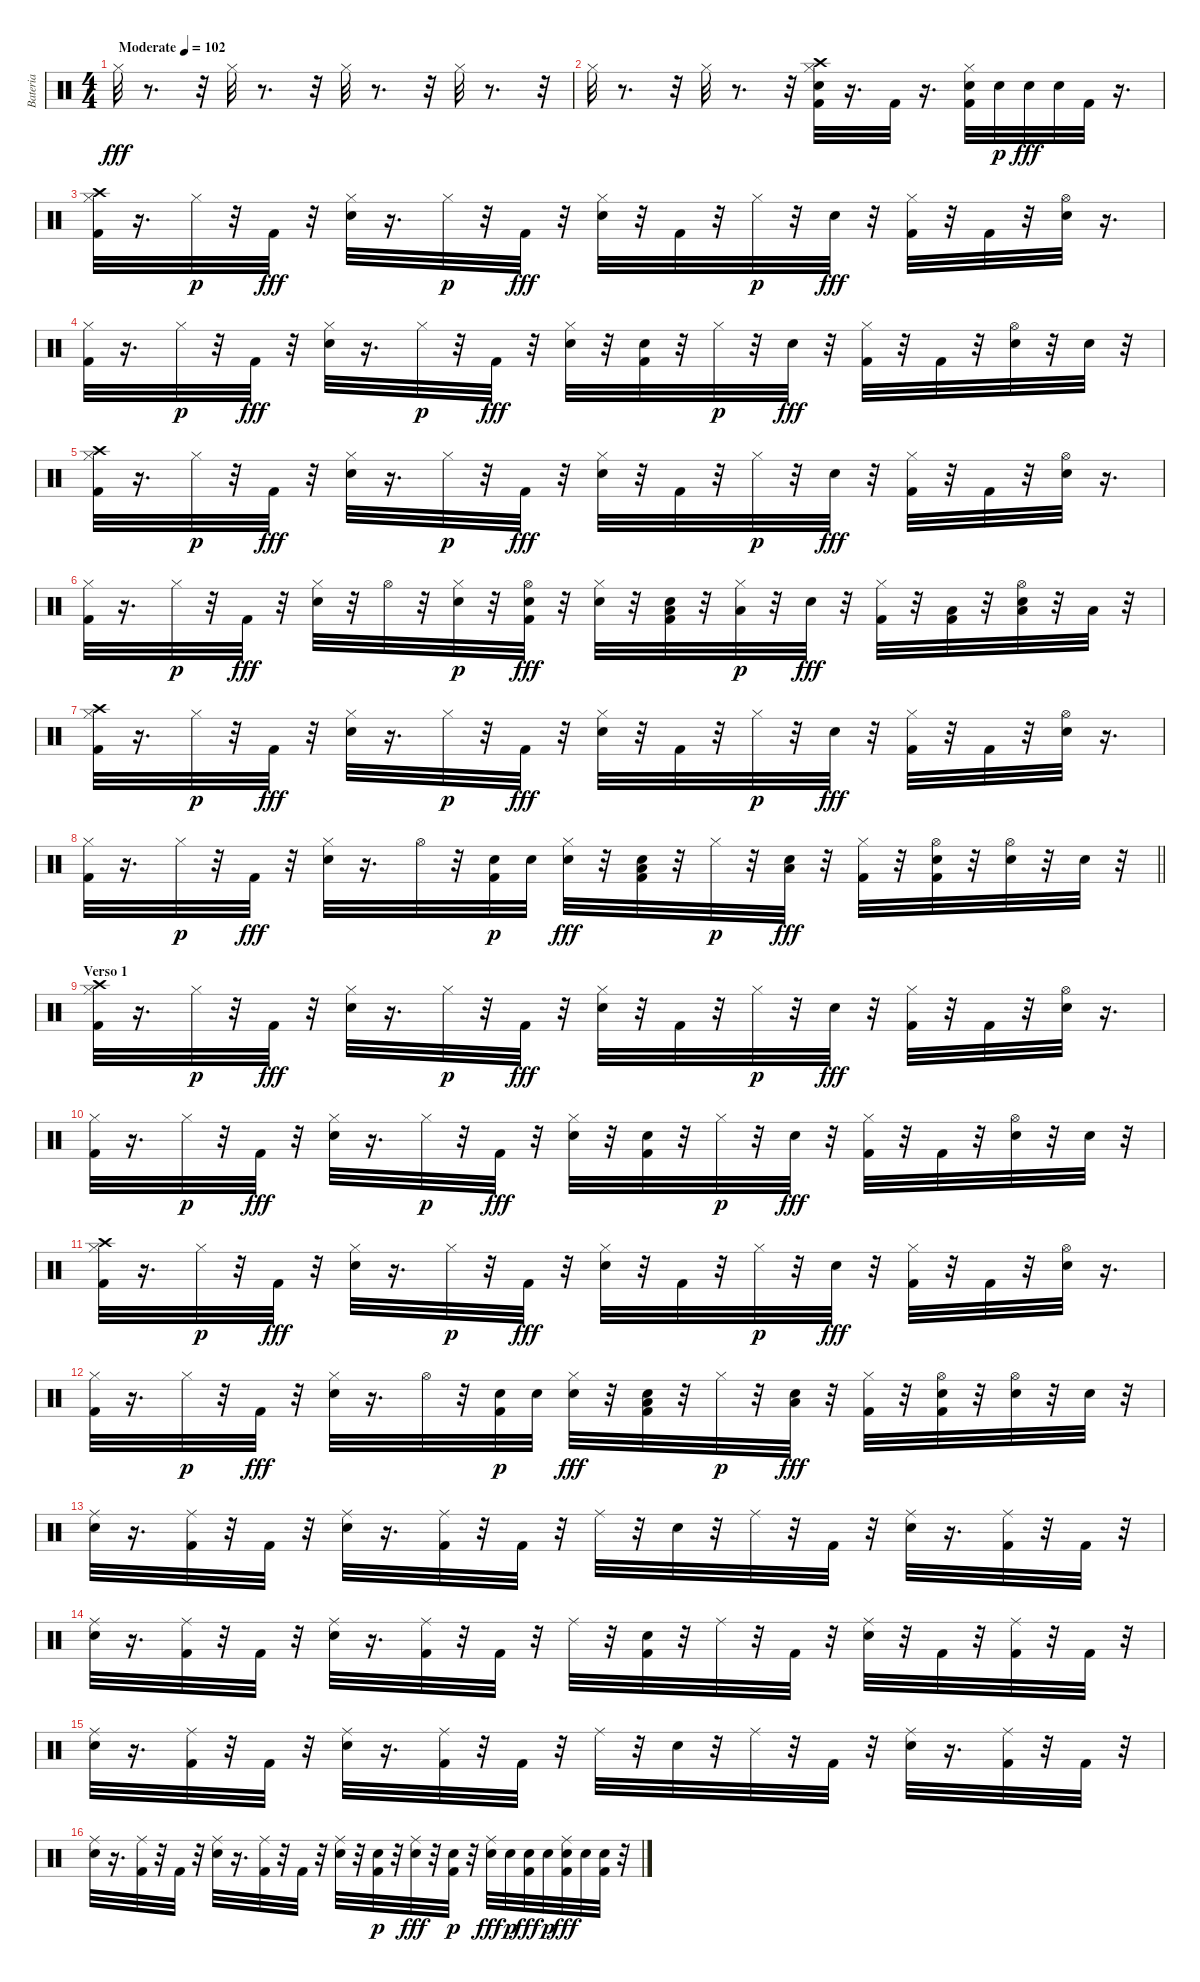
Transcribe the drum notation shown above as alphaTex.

\track ("Bateria" "Bateria") {instrument percussion}
\staff {score}
\articulation defaults
\ts (4 4)
\tempo (102 "Moderate")
\clef neutral
\ks c "Hi-Hat (closed)".32{dy fff}
r.8{d} r.32 "Hi-Hat (closed)".32 r.8{d} r.32 "Hi-Hat (closed)".32 r.8{d} r.32 "Hi-Hat (closed)".32 r.8{d} r.32 |
"Hi-Hat (closed)".32 r.8{d} r.32 "Hi-Hat (closed)".32 r.8{d} r.32 ("Kick (hit) 2" "Snare (hit) 2" "Hi-Hat (closed)" "Crash high (hit)").32 r.16{d} "Kick (hit) 2".32 r.16{d} ("Kick (hit) 2" "Snare (hit) 2" "Hi-Hat (closed)").32 "Snare (hit) 2".32{dy p} "Snare (hit) 2".32{dy fff} "Snare (hit) 2".32 "Kick (hit) 2".32 r.16{d} |
("Kick (hit) 2" "Hi-Hat (closed)" "Crash high (hit)").32 r.16{d} "Hi-Hat (closed)".32{dy p} r.32 "Kick (hit) 2".32{dy fff} r.32 ("Snare (hit) 2" "Hi-Hat (closed)").32 r.16{d} "Hi-Hat (closed)".32{dy p} r.32 "Kick (hit) 2".32{dy fff} r.32 ("Snare (hit) 2" "Hi-Hat (closed)").32 r.32 "Kick (hit) 2".32 r.32 "Hi-Hat (closed)".32{dy p} r.32 "Snare (hit) 2".32{dy fff} r.32 ("Kick (hit) 2" "Hi-Hat (closed)").32 r.32 "Kick (hit) 2".32 r.32 ("Snare (hit) 2" "Hi-Hat (open)").32 r.16{d} |
("Kick (hit) 2" "Hi-Hat (closed)").32 r.16{d} "Hi-Hat (closed)".32{dy p} r.32 "Kick (hit) 2".32{dy fff} r.32 ("Snare (hit) 2" "Hi-Hat (closed)").32 r.16{d} "Hi-Hat (closed)".32{dy p} r.32 "Kick (hit) 2".32{dy fff} r.32 ("Snare (hit) 2" "Hi-Hat (closed)").32 r.32 ("Kick (hit) 2" "Snare (hit) 2").32 r.32 "Hi-Hat (closed)".32{dy p} r.32 "Snare (hit) 2".32{dy fff} r.32 ("Kick (hit) 2" "Hi-Hat (closed)").32 r.32 "Kick (hit) 2".32 r.32 ("Snare (hit) 2" "Hi-Hat (open)").32 r.32 "Snare (hit) 2".32 r.32 |
("Kick (hit) 2" "Hi-Hat (closed)" "Crash high (hit)").32 r.16{d} "Hi-Hat (closed)".32{dy p} r.32 "Kick (hit) 2".32{dy fff} r.32 ("Snare (hit) 2" "Hi-Hat (closed)").32 r.16{d} "Hi-Hat (closed)".32{dy p} r.32 "Kick (hit) 2".32{dy fff} r.32 ("Snare (hit) 2" "Hi-Hat (closed)").32 r.32 "Kick (hit) 2".32 r.32 "Hi-Hat (closed)".32{dy p} r.32 "Snare (hit) 2".32{dy fff} r.32 ("Kick (hit) 2" "Hi-Hat (closed)").32 r.32 "Kick (hit) 2".32 r.32 ("Snare (hit) 2" "Hi-Hat (open)").32 r.16{d} |
("Kick (hit) 2" "Hi-Hat (closed)").32 r.16{d} "Hi-Hat (closed)".32{dy p} r.32 "Kick (hit) 2".32{dy fff} r.32 ("Snare (hit) 2" "Hi-Hat (closed)").32 r.32 "Hi-Hat (open)".32 r.32 ("Snare (hit) 2" "Hi-Hat (closed)").32{dy p} r.32 ("Kick (hit) 2" "Snare (hit) 2" "Hi-Hat (open)").32{dy fff} r.32 ("Snare (hit) 2" "Hi-Hat (closed)").32 r.32 ("Kick (hit) 2" "Snare (hit) 2" "Low Tom (hit)").32 r.32 ("Low Floor Tom (hit)" "Hi-Hat (closed)").32{dy p} r.32 "Snare (hit) 2".32{dy fff} r.32 ("Kick (hit) 2" "Hi-Hat (closed)").32 r.32 ("Kick (hit) 2" "Low Tom (hit)").32 r.32 ("Snare (hit) 2" "Low Floor Tom (hit)" "Hi-Hat (open)").32 r.32 "Low Floor Tom (hit)".32 r.32 |
("Kick (hit) 2" "Hi-Hat (closed)" "Crash high (hit)").32 r.16{d} "Hi-Hat (closed)".32{dy p} r.32 "Kick (hit) 2".32{dy fff} r.32 ("Snare (hit) 2" "Hi-Hat (closed)").32 r.16{d} "Hi-Hat (closed)".32{dy p} r.32 "Kick (hit) 2".32{dy fff} r.32 ("Snare (hit) 2" "Hi-Hat (closed)").32 r.32 "Kick (hit) 2".32 r.32 "Hi-Hat (closed)".32{dy p} r.32 "Snare (hit) 2".32{dy fff} r.32 ("Kick (hit) 2" "Hi-Hat (closed)").32 r.32 "Kick (hit) 2".32 r.32 ("Snare (hit) 2" "Hi-Hat (open)").32 r.16{d} |
\barLineRight lightlight
("Kick (hit) 2" "Hi-Hat (closed)").32 r.16{d} "Hi-Hat (closed)".32{dy p} r.32 "Kick (hit) 2".32{dy fff} r.32 ("Snare (hit) 2" "Hi-Hat (closed)").32 r.16{d} "Hi-Hat (open)".32 r.32 ("Kick (hit) 2" "Snare (hit) 2").32{dy p} "Snare (hit) 2".32 ("Snare (hit) 2" "Hi-Hat (closed)").32{dy fff} r.32 ("Kick (hit) 2" "Snare (hit) 2" "Low Tom (hit)").32 r.32 "Hi-Hat (closed)".32{dy p} r.32 ("Snare (hit) 2" "Low Floor Tom (hit)").32{dy fff} r.32 ("Kick (hit) 2" "Hi-Hat (closed)").32 r.32 ("Kick (hit) 2" "Snare (hit) 2" "Hi-Hat (open)").32 r.32 ("Snare (hit) 2" "Hi-Hat (open)").32 r.32 "Snare (hit) 2".32 r.32 |
\section ("" "Verso 1")
("Kick (hit) 2" "Hi-Hat (closed)" "Crash high (hit)").32 r.16{d} "Hi-Hat (closed)".32{dy p} r.32 "Kick (hit) 2".32{dy fff} r.32 ("Snare (hit) 2" "Hi-Hat (closed)").32 r.16{d} "Hi-Hat (closed)".32{dy p} r.32 "Kick (hit) 2".32{dy fff} r.32 ("Snare (hit) 2" "Hi-Hat (closed)").32 r.32 "Kick (hit) 2".32 r.32 "Hi-Hat (closed)".32{dy p} r.32 "Snare (hit) 2".32{dy fff} r.32 ("Kick (hit) 2" "Hi-Hat (closed)").32 r.32 "Kick (hit) 2".32 r.32 ("Snare (hit) 2" "Hi-Hat (open)").32 r.16{d} |
("Kick (hit) 2" "Hi-Hat (closed)").32 r.16{d} "Hi-Hat (closed)".32{dy p} r.32 "Kick (hit) 2".32{dy fff} r.32 ("Snare (hit) 2" "Hi-Hat (closed)").32 r.16{d} "Hi-Hat (closed)".32{dy p} r.32 "Kick (hit) 2".32{dy fff} r.32 ("Snare (hit) 2" "Hi-Hat (closed)").32 r.32 ("Kick (hit) 2" "Snare (hit) 2").32 r.32 "Hi-Hat (closed)".32{dy p} r.32 "Snare (hit) 2".32{dy fff} r.32 ("Kick (hit) 2" "Hi-Hat (closed)").32 r.32 "Kick (hit) 2".32 r.32 ("Snare (hit) 2" "Hi-Hat (open)").32 r.32 "Snare (hit) 2".32 r.32 |
("Kick (hit) 2" "Hi-Hat (closed)" "Crash high (hit)").32 r.16{d} "Hi-Hat (closed)".32{dy p} r.32 "Kick (hit) 2".32{dy fff} r.32 ("Snare (hit) 2" "Hi-Hat (closed)").32 r.16{d} "Hi-Hat (closed)".32{dy p} r.32 "Kick (hit) 2".32{dy fff} r.32 ("Snare (hit) 2" "Hi-Hat (closed)").32 r.32 "Kick (hit) 2".32 r.32 "Hi-Hat (closed)".32{dy p} r.32 "Snare (hit) 2".32{dy fff} r.32 ("Kick (hit) 2" "Hi-Hat (closed)").32 r.32 "Kick (hit) 2".32 r.32 ("Snare (hit) 2" "Hi-Hat (open)").32 r.16{d} |
("Kick (hit) 2" "Hi-Hat (closed)").32 r.16{d} "Hi-Hat (closed)".32{dy p} r.32 "Kick (hit) 2".32{dy fff} r.32 ("Snare (hit) 2" "Hi-Hat (closed)").32 r.16{d} "Hi-Hat (open)".32 r.32 ("Kick (hit) 2" "Snare (hit) 2").32{dy p} "Snare (hit) 2".32 ("Snare (hit) 2" "Hi-Hat (closed)").32{dy fff} r.32 ("Kick (hit) 2" "Snare (hit) 2" "Low Tom (hit)").32 r.32 "Hi-Hat (closed)".32{dy p} r.32 ("Snare (hit) 2" "Low Floor Tom (hit)").32{dy fff} r.32 ("Kick (hit) 2" "Hi-Hat (closed)").32 r.32 ("Kick (hit) 2" "Snare (hit) 2" "Hi-Hat (open)").32 r.32 ("Snare (hit) 2" "Hi-Hat (open)").32 r.32 "Snare (hit) 2".32 r.32 |
("Snare (hit) 2" "Ride (middle)").32 r.16{d} ("Kick (hit) 2" "Ride (middle)").32 r.32 "Kick (hit) 2".32 r.32 ("Snare (hit) 2" "Ride (middle)").32 r.16{d} ("Kick (hit) 2" "Ride (middle)").32 r.32 "Kick (hit) 2".32 r.32 "Ride (middle)".32 r.32 "Snare (hit) 2".32 r.32 "Ride (middle)".32 r.32 "Kick (hit) 2".32 r.32 ("Snare (hit) 2" "Ride (middle)").32 r.16{d} ("Kick (hit) 2" "Ride (middle)").32 r.32 "Kick (hit) 2".32 r.32 |
("Snare (hit) 2" "Ride (middle)").32 r.16{d} ("Kick (hit) 2" "Ride (middle)").32 r.32 "Kick (hit) 2".32 r.32 ("Snare (hit) 2" "Ride (middle)").32 r.16{d} ("Kick (hit) 2" "Ride (middle)").32 r.32 "Kick (hit) 2".32 r.32 "Ride (middle)".32 r.32 ("Kick (hit) 2" "Snare (hit) 2").32 r.32 "Ride (middle)".32 r.32 "Kick (hit) 2".32 r.32 ("Snare (hit) 2" "Ride (middle)").32 r.32 "Kick (hit) 2".32 r.32 ("Kick (hit) 2" "Ride (middle)").32 r.32 "Kick (hit) 2".32 r.32 |
("Snare (hit) 2" "Ride (middle)").32 r.16{d} ("Kick (hit) 2" "Ride (middle)").32 r.32 "Kick (hit) 2".32 r.32 ("Snare (hit) 2" "Ride (middle)").32 r.16{d} ("Kick (hit) 2" "Ride (middle)").32 r.32 "Kick (hit) 2".32 r.32 "Ride (middle)".32 r.32 "Snare (hit) 2".32 r.32 "Ride (middle)".32 r.32 "Kick (hit) 2".32 r.32 ("Snare (hit) 2" "Ride (middle)").32 r.16{d} ("Kick (hit) 2" "Ride (middle)").32 r.32 "Kick (hit) 2".32 r.32 |
("Snare (hit) 2" "Ride (middle)").32 r.16{d} ("Kick (hit) 2" "Ride (middle)").32 r.32 "Kick (hit) 2".32 r.32 ("Snare (hit) 2" "Ride (middle)").32 r.16{d} ("Kick (hit) 2" "Ride (middle)").32 r.32 "Kick (hit) 2".32 r.32 ("Snare (hit) 2" "Ride (middle)").32 r.32 ("Kick (hit) 2" "Snare (hit) 2").32{dy p} r.32 ("Snare (hit) 2" "Ride (middle)").32{dy fff} r.32 ("Kick (hit) 2" "Snare (hit) 2").32{dy p} r.32 ("Snare (hit) 2" "Ride (middle)").32{dy fff} "Snare (hit) 2".32{dy p} ("Kick (hit) 2" "Snare (hit) 2").32{dy fff} "Snare (hit) 2".32{dy p} ("Kick (hit) 2" "Snare (hit) 2" "Ride (middle)").32{dy fff} "Snare (hit) 2".32 ("Kick (hit) 2" "Snare (hit) 2").32 r.32
